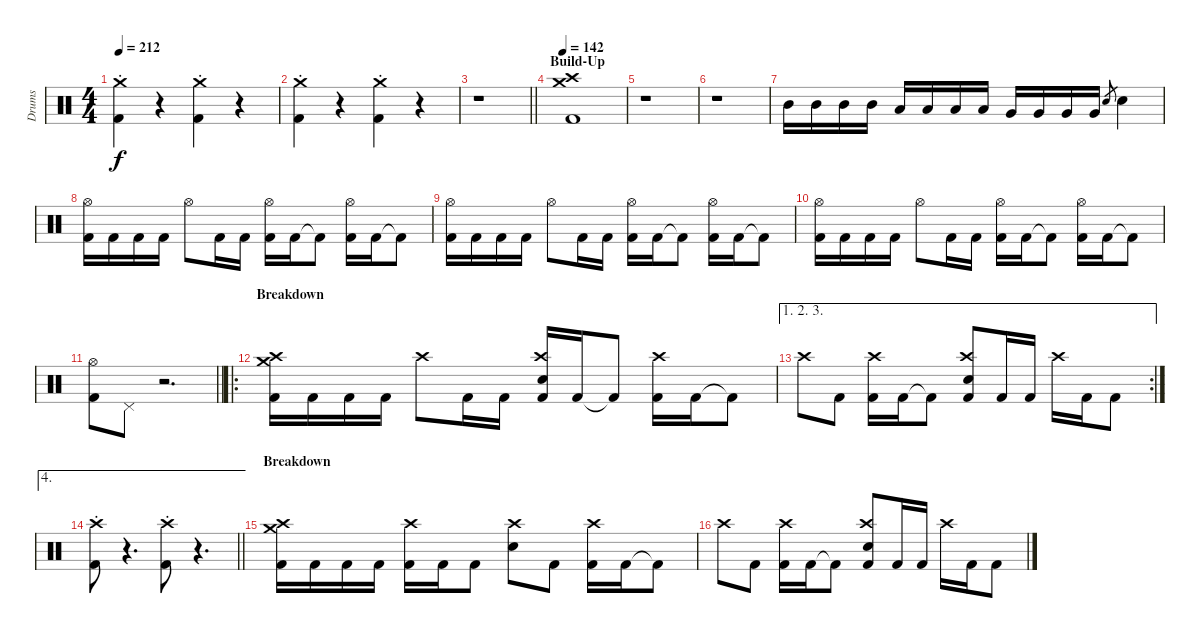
\track ("Drums" "Drums") {instrument percussion}
\staff {score}
\articulation defaults
\ts (4 4)
\tempo 212
\clef neutral
\ks c
("Crash medium (hit)"{st} "Kick (hit) 2").4{dy f} r.4{volume 0} ("Crash medium (hit)"{st} "Kick (hit) 2").4{volume 14} r.4{volume 0} |
("Crash medium (hit)"{st} "Kick (hit) 2").4{volume 14} r.4{volume 0} ("Crash medium (hit)"{st} "Kick (hit) 2").4{volume 14} r.4{volume 0} |
\barLineRight lightlight
r.1 |
\section ("" "Build-Up")
\tempo 142
("Crash medium (hit)" "Crash high (hit)" "Kick (hit) 2").1{volume 14} |
r.1 |
r.1 |
"Mid Tom (hit)".16 "Mid Tom (hit)".16 "Mid Tom (hit)".16 "Mid Tom (hit)".16 "Low Tom (hit)".16 "Low Tom (hit)".16 "Low Tom (hit)".16 "Low Tom (hit)".16 "Very Low Tom (hit)".16 "Very Low Tom (hit)".16 "Very Low Tom (hit)".16 "Very Low Tom (hit)".16 "Electric Snare (hit)".8{gr} "Electric Snare (hit)".4 |
("Hi-Hat (open)" "Kick (hit) 2").16 "Kick (hit) 2".16 "Kick (hit) 2".16 "Kick (hit) 2".16 "Hi-Hat (open)".8 "Kick (hit) 2".16 "Kick (hit) 2".16 ("Hi-Hat (open)" "Kick (hit) 2").16 "Kick (hit) 2".16 "Kick (hit) 2"{t}.8 ("Hi-Hat (open)" "Kick (hit) 2").16 "Kick (hit) 2".16 "Kick (hit) 2"{t}.8 |
("Hi-Hat (open)" "Kick (hit) 2").16 "Kick (hit) 2".16 "Kick (hit) 2".16 "Kick (hit) 2".16 "Hi-Hat (open)".8 "Kick (hit) 2".16 "Kick (hit) 2".16 ("Hi-Hat (open)" "Kick (hit) 2").16 "Kick (hit) 2".16 "Kick (hit) 2"{t}.8 ("Hi-Hat (open)" "Kick (hit) 2").16 "Kick (hit) 2".16 "Kick (hit) 2"{t}.8 |
("Hi-Hat (open)" "Kick (hit) 2").16 "Kick (hit) 2".16 "Kick (hit) 2".16 "Kick (hit) 2".16 "Hi-Hat (open)".8 "Kick (hit) 2".16 "Kick (hit) 2".16 ("Hi-Hat (open)" "Kick (hit) 2").16 "Kick (hit) 2".16 "Kick (hit) 2"{t}.8 ("Hi-Hat (open)" "Kick (hit) 2").16 "Kick (hit) 2".16 "Kick (hit) 2"{t}.8 |
\barLineRight lightlight
("Hi-Hat (open)" "Kick (hit) 2").8 "Pedal Hi-Hat (hit)".8 r.2{d} |
\ro
\section ("" "Breakdown")
("Crash medium (hit)" "Crash high (hit)" "Kick (hit) 2").16 "Kick (hit) 2".16 "Kick (hit) 2".16 "Kick (hit) 2".16 "Crash high (hit)".8 "Kick (hit) 2".16 "Kick (hit) 2".16 ("Crash high (hit)" "Electric Snare (hit)" "Kick (hit) 2").16 "Kick (hit) 2".16 "Kick (hit) 2"{t}.8 ("Crash high (hit)" "Kick (hit) 2").16 "Kick (hit) 2".16 "Kick (hit) 2"{t}.8 |
\ae (1 2 3)
\rc 2 "Crash high (hit)".8 "Kick (hit) 2".8
("Crash high (hit)" "Kick (hit) 2").16 "Kick (hit) 2".16 "Kick (hit) 2"{t}.8 ("Crash high (hit)" "Electric Snare (hit)" "Kick (hit) 2").8 "Kick (hit) 2".16 "Kick (hit) 2".16 "Crash high (hit)".16 "Kick (hit) 2".16 "Kick (hit) 2".8 |
\ae 4
\barLineRight lightlight
("Crash high (hit)"{st} "Kick (hit) 2").8 r.4{d volume 0} ("Crash high (hit)"{st} "Kick (hit) 2").8{volume 14} r.4{d volume 0} |
\section ("" "Breakdown")
("Crash medium (hit)" "Crash high (hit)" "Kick (hit) 2").16{volume 14} "Kick (hit) 2".16 "Kick (hit) 2".16 "Kick (hit) 2".16 ("Crash high (hit)" "Kick (hit) 2").16 "Kick (hit) 2".16 "Kick (hit) 2".8 ("Crash high (hit)" "Electric Snare (hit)").8 "Kick (hit) 2".8 ("Crash high (hit)" "Kick (hit) 2").16 "Kick (hit) 2".16 "Kick (hit) 2"{t}.8 |
"Crash high (hit)".8 "Kick (hit) 2".8 ("Crash high (hit)" "Kick (hit) 2").16 "Kick (hit) 2".16 "Kick (hit) 2"{t}.8 ("Crash high (hit)" "Electric Snare (hit)" "Kick (hit) 2").8 "Kick (hit) 2".16 "Kick (hit) 2".16 "Crash high (hit)".16 "Kick (hit) 2".16 "Kick (hit) 2".8
